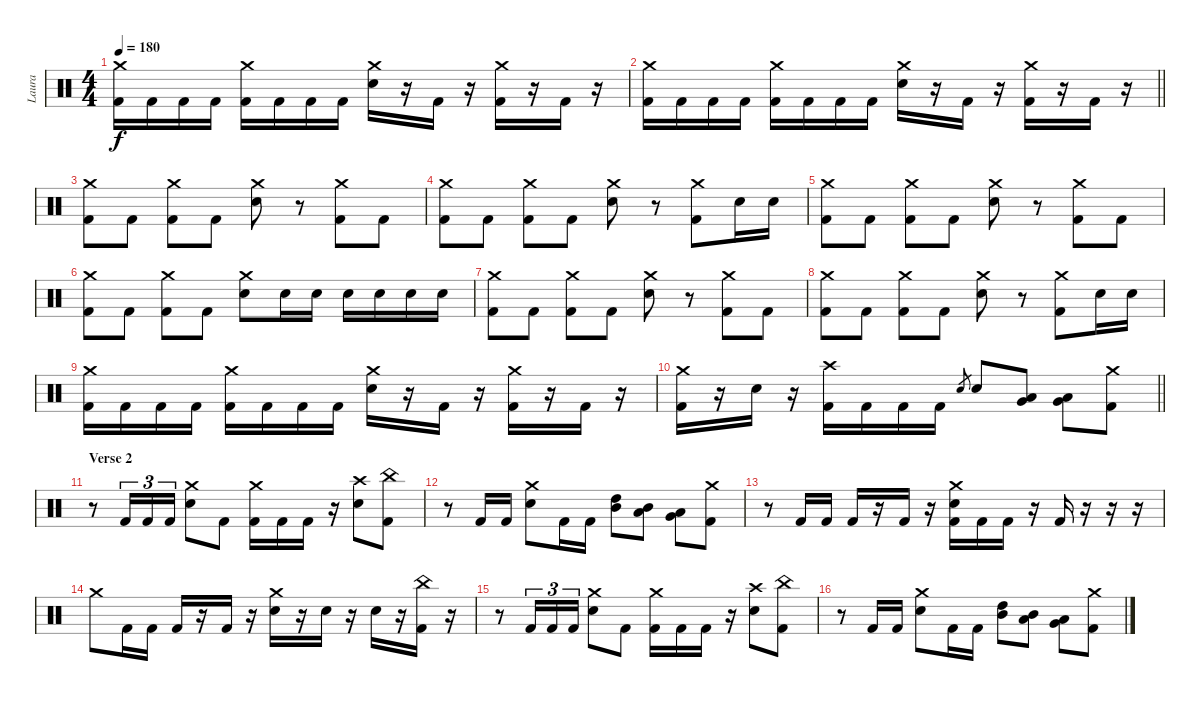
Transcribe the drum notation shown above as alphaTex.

\track ("Laura" "Laura") {instrument percussion}
\staff {score}
\articulation defaults
\ts (4 4)
\tempo 180
\clef neutral
\ks c
("Crash medium (hit)" "Kick (hit) 2").16{dy f} "Kick (hit) 2".16 "Kick (hit) 2".16 "Kick (hit) 2".16 ("Crash medium (hit)" "Kick (hit) 2").16 "Kick (hit) 2".16 "Kick (hit) 2".16 "Kick (hit) 2".16 ("Crash medium (hit)" "Electric Snare (hit)").16 r.16 "Kick (hit) 2".16 r.16 ("Crash medium (hit)" "Kick (hit) 2").16 r.16 "Kick (hit) 2".16 r.16 |
\barLineRight lightlight
("Crash medium (hit)" "Kick (hit) 2").16 "Kick (hit) 2".16 "Kick (hit) 2".16 "Kick (hit) 2".16 ("Crash medium (hit)" "Kick (hit) 2").16 "Kick (hit) 2".16 "Kick (hit) 2".16 "Kick (hit) 2".16 ("Crash medium (hit)" "Electric Snare (hit)").16 r.16 "Kick (hit) 2".16 r.16 ("Crash medium (hit)" "Kick (hit) 2").16 r.16 "Kick (hit) 2".16 r.16 |
\section ("" "")
("Crash medium (hit)" "Kick (hit) 2").8 "Kick (hit) 2".8 ("Crash medium (hit)" "Kick (hit) 2").8 "Kick (hit) 2".8 ("Crash medium (hit)" "Electric Snare (hit)").8 r.8 ("Crash medium (hit)" "Kick (hit) 2").8 "Kick (hit) 2".8 |
("Crash medium (hit)" "Kick (hit) 2").8 "Kick (hit) 2".8 ("Crash medium (hit)" "Kick (hit) 2").8 "Kick (hit) 2".8 ("Crash medium (hit)" "Electric Snare (hit)").8 r.8 ("Crash medium (hit)" "Kick (hit) 2").8 "Electric Snare (hit)".16 "Electric Snare (hit)".16 |
("Crash medium (hit)" "Kick (hit) 2").8 "Kick (hit) 2".8 ("Crash medium (hit)" "Kick (hit) 2").8 "Kick (hit) 2".8 ("Crash medium (hit)" "Electric Snare (hit)").8 r.8 ("Crash medium (hit)" "Kick (hit) 2").8 "Kick (hit) 2".8 |
("Crash medium (hit)" "Kick (hit) 2").8 "Kick (hit) 2".8 ("Crash medium (hit)" "Kick (hit) 2").8 "Kick (hit) 2".8 ("Crash medium (hit)" "Electric Snare (hit)").8 "Electric Snare (hit)".16 "Electric Snare (hit)".16 "Electric Snare (hit)".16 "Electric Snare (hit)".16 "Electric Snare (hit)".16 "Electric Snare (hit)".16 |
("Crash medium (hit)" "Kick (hit) 2").8 "Kick (hit) 2".8 ("Crash medium (hit)" "Kick (hit) 2").8 "Kick (hit) 2".8 ("Crash medium (hit)" "Electric Snare (hit)").8 r.8 ("Crash medium (hit)" "Kick (hit) 2").8 "Kick (hit) 2".8 |
("Crash medium (hit)" "Kick (hit) 2").8 "Kick (hit) 2".8 ("Crash medium (hit)" "Kick (hit) 2").8 "Kick (hit) 2".8 ("Crash medium (hit)" "Electric Snare (hit)").8 r.8 ("Crash medium (hit)" "Kick (hit) 2").8 "Electric Snare (hit)".16 "Electric Snare (hit)".16 |
("Crash medium (hit)" "Kick (hit) 2").16 "Kick (hit) 2".16 "Kick (hit) 2".16 "Kick (hit) 2".16 ("Crash medium (hit)" "Kick (hit) 2").16 "Kick (hit) 2".16 "Kick (hit) 2".16 "Kick (hit) 2".16 ("Crash medium (hit)" "Electric Snare (hit)").16 r.16 "Kick (hit) 2".16 r.16 ("Crash medium (hit)" "Kick (hit) 2").16 r.16 "Kick (hit) 2".16 r.16 |
\barLineRight lightlight
("Crash medium (hit)" "Kick (hit) 2").16 r.16 "Electric Snare (hit)".16 r.16 ("Crash high (hit)" "Kick (hit) 2").16 "Kick (hit) 2".16 "Kick (hit) 2".16 "Kick (hit) 2".16 "Electric Snare (hit)".8{gr} "Electric Snare (hit)".8 ("Very Low Tom (hit)" "Low Floor Tom (hit)").8 ("Low Tom (hit)" "Very Low Tom (hit)").8 ("Crash medium (hit)" "Kick (hit) 2").8 |
\section ("" "Verse 2")
r.8 "Kick (hit) 2".16{tu (3 2)} "Kick (hit) 2".16{tu (3 2)} "Kick (hit) 2".16{tu (3 2)} ("Crash medium (hit)" "Electric Snare (hit)").8 "Kick (hit) 2".8 ("Crash medium (hit)" "Kick (hit) 2").16 "Kick (hit) 2".16 "Kick (hit) 2".16 r.16 ("Crash high (hit)" "Electric Snare (hit)").8 ("China (hit)" "Kick (hit) 2").8 |
r.8 "Kick (hit) 2".16 "Kick (hit) 2".16 ("Crash medium (hit)" "Electric Snare (hit)").8 "Kick (hit) 2".16 "Kick (hit) 2".16 ("High Tom (hit)" "Mid Tom (hit)").8 ("Mid Tom (hit)" "Low Tom (hit)").8 ("Low Tom (hit)" "Very Low Tom (hit)").8 ("Crash medium (hit)" "Kick (hit) 2").8 |
r.8 "Kick (hit) 2".16 "Kick (hit) 2".16 "Kick (hit) 2".16 r.16 "Kick (hit) 2".16 r.16 ("Crash medium (hit)" "Electric Snare (hit)" "Kick (hit) 2").16 "Kick (hit) 2".16 "Kick (hit) 2".16 r.16 "Kick (hit) 2".16 r.16 r.16 r.16 |
"Crash medium (hit)".8 "Kick (hit) 2".16 "Kick (hit) 2".16 "Kick (hit) 2".16 r.16 "Kick (hit) 2".16 r.16 ("Crash medium (hit)" "Electric Snare (hit)").16 r.16 "Electric Snare (hit)".16 r.16 "Electric Snare (hit)".16 r.16 ("China (hit)" "Kick (hit) 2").16 r.16 |
r.8 "Kick (hit) 2".16{tu (3 2)} "Kick (hit) 2".16{tu (3 2)} "Kick (hit) 2".16{tu (3 2)} ("Crash medium (hit)" "Electric Snare (hit)").8 "Kick (hit) 2".8 ("Crash medium (hit)" "Kick (hit) 2").16 "Kick (hit) 2".16 "Kick (hit) 2".16 r.16 ("Crash high (hit)" "Electric Snare (hit)").8 ("China (hit)" "Kick (hit) 2").8 |
r.8 "Kick (hit) 2".16 "Kick (hit) 2".16 ("Crash medium (hit)" "Electric Snare (hit)").8 "Kick (hit) 2".16 "Kick (hit) 2".16 ("High Tom (hit)" "Mid Tom (hit)").8 ("Mid Tom (hit)" "Low Tom (hit)").8 ("Low Tom (hit)" "Very Low Tom (hit)").8 ("Crash medium (hit)" "Kick (hit) 2").8
